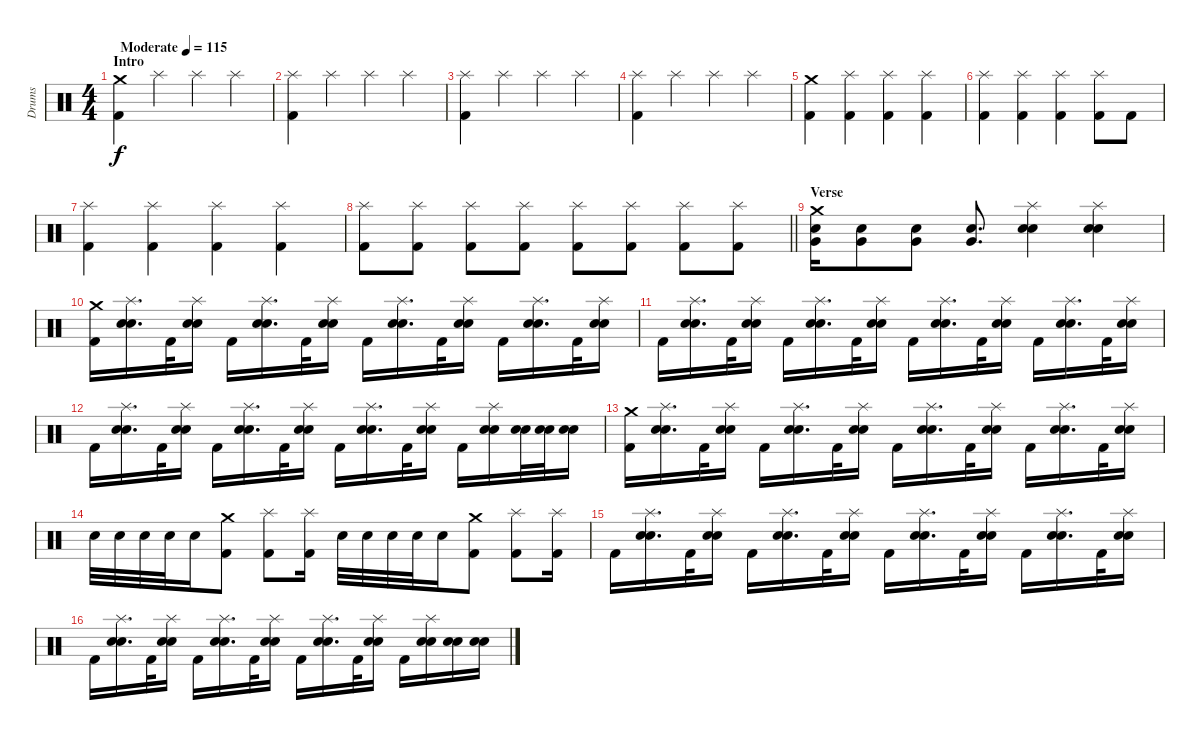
\track ("Drums" "Drums") {instrument percussion}
\staff {score}
\articulation defaults
\ts (4 4)
\section ("" "Intro")
\tempo (115 "Moderate")
\clef neutral
\ks c
("Crash medium (hit)" "Kick (hit) 2").4{dy f} "Splash (hit)".4 "Splash (hit)".4 "Splash (hit)".4 |
("Splash (hit)" "Kick (hit) 2").4 "Splash (hit)".4 "Splash (hit)".4 "Splash (hit)".4 |
("Splash (hit)" "Kick (hit) 2").4 "Splash (hit)".4 "Splash (hit)".4 "Splash (hit)".4 |
("Splash (hit)" "Kick (hit) 2").4 "Splash (hit)".4 "Splash (hit)".4 "Splash (hit)".4 |
("Crash medium (hit)" "Kick (hit) 2").4 ("Splash (hit)" "Kick (hit) 2").4 ("Splash (hit)" "Kick (hit) 2").4 ("Splash (hit)" "Kick (hit) 2").4 |
("Splash (hit)" "Kick (hit) 2").4 ("Splash (hit)" "Kick (hit) 2").4 ("Splash (hit)" "Kick (hit) 2").4 ("Splash (hit)" "Kick (hit) 2").8 "Kick (hit) 2".8 |
("Splash (hit)" "Kick (hit) 2").4 ("Splash (hit)" "Kick (hit) 2").4 ("Splash (hit)" "Kick (hit) 2").4 ("Splash (hit)" "Kick (hit) 2").4 |
\barLineRight lightlight
("Splash (hit)" "Kick (hit) 2").8 ("Splash (hit)" "Kick (hit) 2").8 ("Splash (hit)" "Kick (hit) 2").8 ("Splash (hit)" "Kick (hit) 2").8 ("Splash (hit)" "Kick (hit) 2").8 ("Splash (hit)" "Kick (hit) 2").8 ("Splash (hit)" "Kick (hit) 2").8 ("Splash (hit)" "Kick (hit) 2").8 |
\section ("" "Verse")
("Crash medium (hit)" "Very Low Tom (hit)" "Snare (hit) 2").16 ("Very Low Tom (hit)" "Snare (hit) 2").8 ("Very Low Tom (hit)" "Snare (hit) 2").8 ("Very Low Tom (hit)" "Snare (hit) 2").8{d} ("Splash (hit)" "Electric Snare (hit)" "Snare (hit) 2").4 ("Splash (hit)" "Electric Snare (hit)" "Snare (hit) 2").4 |
("Crash medium (hit)" "Kick (hit) 2").16 ("Splash (hit)" "Electric Snare (hit)" "Snare (hit) 2").16{d} "Kick (hit) 2".32 ("Splash (hit)" "Electric Snare (hit)" "Snare (hit) 2").16 "Kick (hit) 2".16 ("Splash (hit)" "Electric Snare (hit)" "Snare (hit) 2").16{d} "Kick (hit) 2".32 ("Splash (hit)" "Electric Snare (hit)" "Snare (hit) 2").16 "Kick (hit) 2".16 ("Splash (hit)" "Electric Snare (hit)" "Snare (hit) 2").16{d} "Kick (hit) 2".32 ("Splash (hit)" "Electric Snare (hit)" "Snare (hit) 2").16 "Kick (hit) 2".16 ("Splash (hit)" "Electric Snare (hit)" "Snare (hit) 2").16{d} "Kick (hit) 2".32 ("Splash (hit)" "Electric Snare (hit)" "Snare (hit) 2").16 |
"Kick (hit) 2".16 ("Splash (hit)" "Electric Snare (hit)" "Snare (hit) 2").16{d} "Kick (hit) 2".32 ("Splash (hit)" "Electric Snare (hit)" "Snare (hit) 2").16 "Kick (hit) 2".16 ("Splash (hit)" "Electric Snare (hit)" "Snare (hit) 2").16{d} "Kick (hit) 2".32 ("Splash (hit)" "Electric Snare (hit)" "Snare (hit) 2").16 "Kick (hit) 2".16 ("Splash (hit)" "Electric Snare (hit)" "Snare (hit) 2").16{d} "Kick (hit) 2".32 ("Splash (hit)" "Electric Snare (hit)" "Snare (hit) 2").16 "Kick (hit) 2".16 ("Splash (hit)" "Electric Snare (hit)" "Snare (hit) 2").16{d} "Kick (hit) 2".32 ("Splash (hit)" "Electric Snare (hit)" "Snare (hit) 2").16 |
"Kick (hit) 2".16 ("Splash (hit)" "Electric Snare (hit)" "Snare (hit) 2").16{d} "Kick (hit) 2".32 ("Splash (hit)" "Electric Snare (hit)" "Snare (hit) 2").16 "Kick (hit) 2".16 ("Splash (hit)" "Electric Snare (hit)" "Snare (hit) 2").16{d} "Kick (hit) 2".32 ("Splash (hit)" "Electric Snare (hit)" "Snare (hit) 2").16 "Kick (hit) 2".16 ("Splash (hit)" "Electric Snare (hit)" "Snare (hit) 2").16{d} "Kick (hit) 2".32 ("Splash (hit)" "Electric Snare (hit)" "Snare (hit) 2").16 "Kick (hit) 2".16 ("Splash (hit)" "Electric Snare (hit)" "Snare (hit) 2").16 ("Electric Snare (hit)" "Snare (hit) 2").32 ("Electric Snare (hit)" "Snare (hit) 2").32 ("Electric Snare (hit)" "Snare (hit) 2").16 |
("Crash medium (hit)" "Kick (hit) 2").16 ("Splash (hit)" "Electric Snare (hit)" "Snare (hit) 2").16{d} "Kick (hit) 2".32 ("Splash (hit)" "Electric Snare (hit)" "Snare (hit) 2").16 "Kick (hit) 2".16 ("Splash (hit)" "Electric Snare (hit)" "Snare (hit) 2").16{d} "Kick (hit) 2".32 ("Splash (hit)" "Electric Snare (hit)" "Snare (hit) 2").16 "Kick (hit) 2".16 ("Splash (hit)" "Electric Snare (hit)" "Snare (hit) 2").16{d} "Kick (hit) 2".32 ("Splash (hit)" "Electric Snare (hit)" "Snare (hit) 2").16 "Kick (hit) 2".16 ("Splash (hit)" "Electric Snare (hit)" "Snare (hit) 2").16{d} "Kick (hit) 2".32 ("Splash (hit)" "Electric Snare (hit)" "Snare (hit) 2").16 |
"Electric Snare (hit)".32 "Electric Snare (hit)".32 "Electric Snare (hit)".32 "Electric Snare (hit)".32 "Electric Snare (hit)".16 ("Crash medium (hit)" "Kick (hit) 2").8 ("Splash (hit)" "Kick (hit) 2").8 ("Splash (hit)" "Kick (hit) 2").16 "Electric Snare (hit)".32 "Electric Snare (hit)".32 "Electric Snare (hit)".32 "Electric Snare (hit)".32 "Electric Snare (hit)".16 ("Crash medium (hit)" "Kick (hit) 2").8 ("Splash (hit)" "Kick (hit) 2").8 ("Splash (hit)" "Kick (hit) 2").16 |
"Kick (hit) 2".16 ("Splash (hit)" "Electric Snare (hit)" "Snare (hit) 2").16{d} "Kick (hit) 2".32 ("Splash (hit)" "Electric Snare (hit)" "Snare (hit) 2").16 "Kick (hit) 2".16 ("Splash (hit)" "Electric Snare (hit)" "Snare (hit) 2").16{d} "Kick (hit) 2".32 ("Splash (hit)" "Electric Snare (hit)" "Snare (hit) 2").16 "Kick (hit) 2".16 ("Splash (hit)" "Electric Snare (hit)" "Snare (hit) 2").16{d} "Kick (hit) 2".32 ("Splash (hit)" "Electric Snare (hit)" "Snare (hit) 2").16 "Kick (hit) 2".16 ("Splash (hit)" "Electric Snare (hit)" "Snare (hit) 2").16{d} "Kick (hit) 2".32 ("Splash (hit)" "Electric Snare (hit)" "Snare (hit) 2").16 |
"Kick (hit) 2".16 ("Splash (hit)" "Electric Snare (hit)" "Snare (hit) 2").16{d} "Kick (hit) 2".32 ("Splash (hit)" "Electric Snare (hit)" "Snare (hit) 2").16 "Kick (hit) 2".16 ("Splash (hit)" "Electric Snare (hit)" "Snare (hit) 2").16{d} "Kick (hit) 2".32 ("Splash (hit)" "Electric Snare (hit)" "Snare (hit) 2").16 "Kick (hit) 2".16 ("Splash (hit)" "Electric Snare (hit)" "Snare (hit) 2").16{d} "Kick (hit) 2".32 ("Splash (hit)" "Electric Snare (hit)" "Snare (hit) 2").16 "Kick (hit) 2".16 ("Splash (hit)" "Electric Snare (hit)" "Snare (hit) 2").16 ("Electric Snare (hit)" "Snare (hit) 2").16 ("Electric Snare (hit)" "Snare (hit) 2").16
